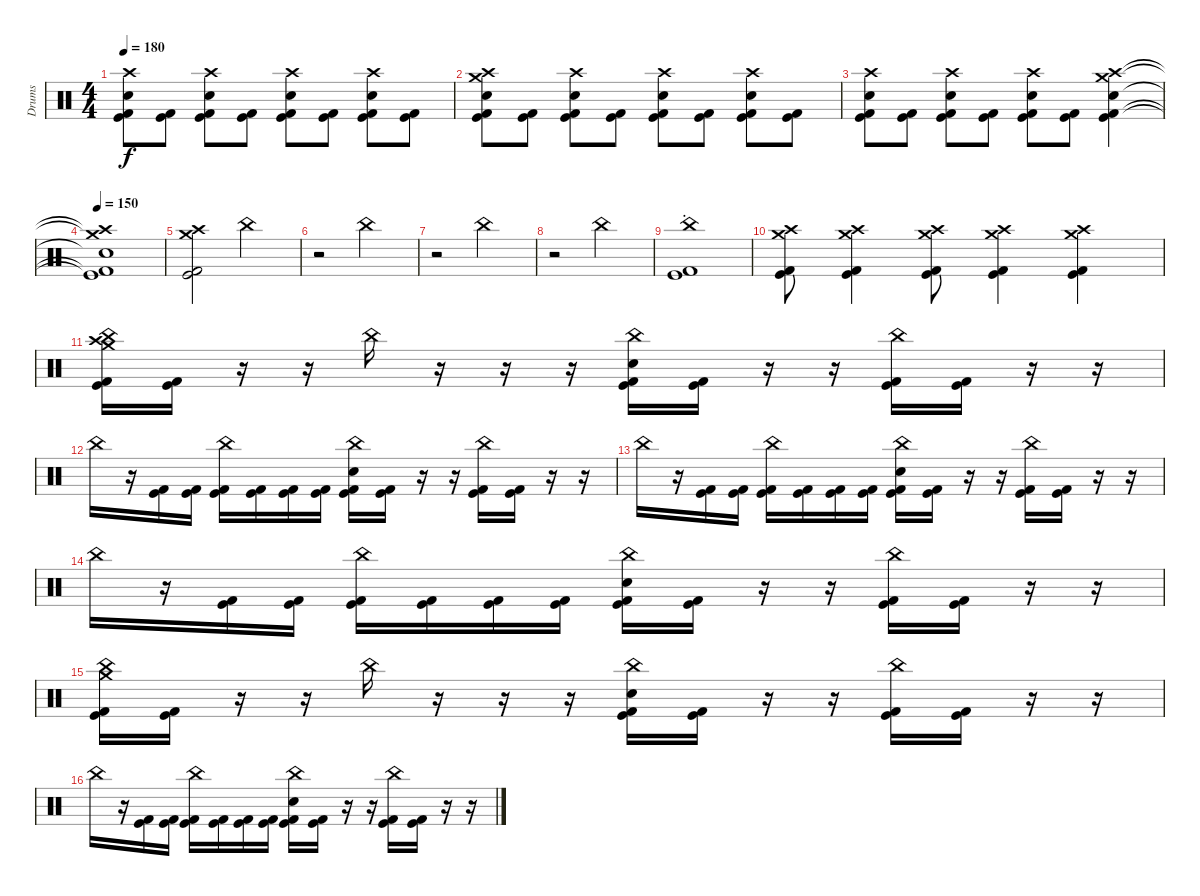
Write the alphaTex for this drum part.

\track ("Drums" "Drums") {instrument percussion}
\staff {score}
\articulation defaults
\ts (4 4)
\tempo 180
\clef neutral
\ks c
("Crash high (hit)" "Snare (hit) 2" "Kick (hit)" "Kick (hit) 2").8{dy f} ("Kick (hit)" "Kick (hit) 2").8 ("Crash high (hit)" "Snare (hit) 2" "Kick (hit)" "Kick (hit) 2").8 ("Kick (hit)" "Kick (hit) 2").8 ("Crash high (hit)" "Snare (hit) 2" "Kick (hit)" "Kick (hit) 2").8 ("Kick (hit)" "Kick (hit) 2").8 ("Crash high (hit)" "Snare (hit) 2" "Kick (hit)" "Kick (hit) 2").8 ("Kick (hit)" "Kick (hit) 2").8 |
("Crash medium (hit)" "Crash high (hit)" "Snare (hit) 2" "Kick (hit)" "Kick (hit) 2").8 ("Kick (hit)" "Kick (hit) 2").8 ("Crash high (hit)" "Snare (hit) 2" "Kick (hit)" "Kick (hit) 2").8 ("Kick (hit)" "Kick (hit) 2").8 ("Crash high (hit)" "Snare (hit) 2" "Kick (hit)" "Kick (hit) 2").8 ("Kick (hit)" "Kick (hit) 2").8 ("Crash high (hit)" "Snare (hit) 2" "Kick (hit)" "Kick (hit) 2").8 ("Kick (hit)" "Kick (hit) 2").8 |
("Crash high (hit)" "Snare (hit) 2" "Kick (hit)" "Kick (hit) 2").8 ("Kick (hit)" "Kick (hit) 2").8 ("Crash high (hit)" "Snare (hit) 2" "Kick (hit)" "Kick (hit) 2").8 ("Kick (hit)" "Kick (hit) 2").8 ("Crash high (hit)" "Snare (hit) 2" "Kick (hit)" "Kick (hit) 2").8 ("Kick (hit)" "Kick (hit) 2").8 ("Crash medium (hit)" "Crash high (hit)" "Snare (hit) 2" "Kick (hit)" "Kick (hit) 2").4 |
\tempo 150
("Crash medium (hit)"{t} "Crash high (hit)"{t} "Snare (hit)"{t} "Kick (hit)"{t} "Kick (hit) 2"{t}).1 |
("Crash medium (hit)" "Crash high (hit)" "Kick (hit)" "Kick (hit) 2").2 "China (hit)".2 |
r.2 "China (hit)".2 |
r.2 "China (hit)".2 |
r.2 "China (hit)".2 |
("China (hit)"{st} "Kick (hit)" "Kick (hit) 2").1 |
("Crash medium (hit)" "Crash high (hit)" "Kick (hit)" "Kick (hit) 2").8 ("Crash medium (hit)" "Crash high (hit)" "Kick (hit)" "Kick (hit) 2").4 ("Crash medium (hit)" "Crash high (hit)" "Kick (hit)" "Kick (hit) 2").8 ("Crash medium (hit)" "Crash high (hit)" "Kick (hit)" "Kick (hit) 2").4 ("Crash medium (hit)" "Crash high (hit)" "Kick (hit)" "Kick (hit) 2").4 |
("Crash high (hit)" "Crash medium (hit)" "China (hit)" "Kick (hit)" "Kick (hit) 2").16 ("Kick (hit)" "Kick (hit) 2").16 r.16 r.16 "China (hit)".16 r.16 r.16 r.16 ("China (hit)" "Snare (hit) 2" "Kick (hit)" "Kick (hit) 2").16 ("Kick (hit)" "Kick (hit) 2").16 r.16 r.16 ("China (hit)" "Kick (hit)" "Kick (hit) 2").16 ("Kick (hit)" "Kick (hit) 2").16 r.16 r.16 |
"China (hit)".16 r.16 ("Kick (hit)" "Kick (hit) 2").16 ("Kick (hit)" "Kick (hit) 2").16 ("China (hit)" "Kick (hit)" "Kick (hit) 2").16 ("Kick (hit)" "Kick (hit) 2").16 ("Kick (hit)" "Kick (hit) 2").16 ("Kick (hit)" "Kick (hit) 2").16 ("China (hit)" "Snare (hit) 2" "Kick (hit)" "Kick (hit) 2").16 ("Kick (hit)" "Kick (hit) 2").16 r.16 r.16 ("China (hit)" "Kick (hit)" "Kick (hit) 2").16 ("Kick (hit)" "Kick (hit) 2").16 r.16 r.16 |
"China (hit)".16 r.16 ("Kick (hit)" "Kick (hit) 2").16 ("Kick (hit)" "Kick (hit) 2").16 ("China (hit)" "Kick (hit)" "Kick (hit) 2").16 ("Kick (hit)" "Kick (hit) 2").16 ("Kick (hit)" "Kick (hit) 2").16 ("Kick (hit)" "Kick (hit) 2").16 ("China (hit)" "Snare (hit) 2" "Kick (hit)" "Kick (hit) 2").16 ("Kick (hit)" "Kick (hit) 2").16 r.16 r.16 ("China (hit)" "Kick (hit)" "Kick (hit) 2").16 ("Kick (hit)" "Kick (hit) 2").16 r.16 r.16 |
"China (hit)".16 r.16 ("Kick (hit)" "Kick (hit) 2").16 ("Kick (hit)" "Kick (hit) 2").16 ("China (hit)" "Kick (hit)" "Kick (hit) 2").16 ("Kick (hit)" "Kick (hit) 2").16 ("Kick (hit)" "Kick (hit) 2").16 ("Kick (hit)" "Kick (hit) 2").16 ("China (hit)" "Snare (hit) 2" "Kick (hit)" "Kick (hit) 2").16 ("Kick (hit)" "Kick (hit) 2").16 r.16 r.16 ("China (hit)" "Kick (hit)" "Kick (hit) 2").16 ("Kick (hit)" "Kick (hit) 2").16 r.16 r.16 |
("Crash medium (hit)" "China (hit)" "Kick (hit)" "Kick (hit) 2").16 ("Kick (hit)" "Kick (hit) 2").16 r.16 r.16 "China (hit)".16 r.16 r.16 r.16 ("China (hit)" "Snare (hit) 2" "Kick (hit)" "Kick (hit) 2").16 ("Kick (hit)" "Kick (hit) 2").16 r.16 r.16 ("China (hit)" "Kick (hit)" "Kick (hit) 2").16 ("Kick (hit)" "Kick (hit) 2").16 r.16 r.16 |
"China (hit)".16 r.16 ("Kick (hit)" "Kick (hit) 2").16 ("Kick (hit)" "Kick (hit) 2").16 ("China (hit)" "Kick (hit)" "Kick (hit) 2").16 ("Kick (hit)" "Kick (hit) 2").16 ("Kick (hit)" "Kick (hit) 2").16 ("Kick (hit)" "Kick (hit) 2").16 ("China (hit)" "Snare (hit) 2" "Kick (hit)" "Kick (hit) 2").16 ("Kick (hit)" "Kick (hit) 2").16 r.16 r.16 ("China (hit)" "Kick (hit)" "Kick (hit) 2").16 ("Kick (hit)" "Kick (hit) 2").16 r.16 r.16
